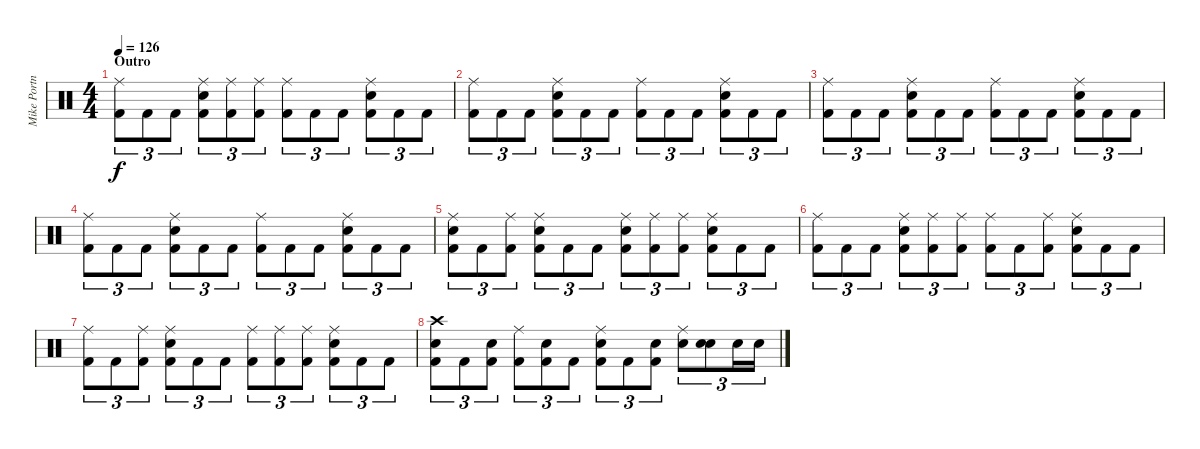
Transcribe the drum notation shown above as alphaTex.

\track ("Mike Portnoy" "Mike Portn") {instrument percussion}
\staff {score}
\articulation defaults
\ts (4 4)
\section ("" "Outro")
\tempo 126
\clef neutral
\ks c
("Ride (middle)" "Kick (hit) 2").8{tu (3 2) dy f} "Kick (hit) 2".8{tu (3 2)} "Kick (hit) 2".8{tu (3 2)} ("Ride (middle)" "Electric Snare (hit)" "Kick (hit) 2").8{tu (3 2)} ("Ride (middle)" "Kick (hit) 2").8{tu (3 2)} ("Ride (middle)" "Kick (hit) 2").8{tu (3 2)} ("Ride (middle)" "Kick (hit) 2").8{tu (3 2)} "Kick (hit) 2".8{tu (3 2)} "Kick (hit) 2".8{tu (3 2)} ("Ride (middle)" "Electric Snare (hit)" "Kick (hit) 2").8{tu (3 2)} "Kick (hit) 2".8{tu (3 2)} "Kick (hit) 2".8{tu (3 2)} |
("Ride (middle)" "Kick (hit) 2").8{tu (3 2)} "Kick (hit) 2".8{tu (3 2)} "Kick (hit) 2".8{tu (3 2)} ("Ride (middle)" "Electric Snare (hit)" "Kick (hit) 2").8{tu (3 2)} "Kick (hit) 2".8{tu (3 2)} "Kick (hit) 2".8{tu (3 2)} ("Ride (middle)" "Kick (hit) 2").8{tu (3 2)} "Kick (hit) 2".8{tu (3 2)} "Kick (hit) 2".8{tu (3 2)} ("Ride (middle)" "Electric Snare (hit)" "Kick (hit) 2").8{tu (3 2)} "Kick (hit) 2".8{tu (3 2)} "Kick (hit) 2".8{tu (3 2)} |
("Ride (middle)" "Kick (hit) 2").8{tu (3 2)} "Kick (hit) 2".8{tu (3 2)} "Kick (hit) 2".8{tu (3 2)} ("Ride (middle)" "Electric Snare (hit)" "Kick (hit) 2").8{tu (3 2)} "Kick (hit) 2".8{tu (3 2)} "Kick (hit) 2".8{tu (3 2)} ("Ride (middle)" "Kick (hit) 2").8{tu (3 2)} "Kick (hit) 2".8{tu (3 2)} "Kick (hit) 2".8{tu (3 2)} ("Ride (middle)" "Electric Snare (hit)" "Kick (hit) 2").8{tu (3 2)} "Kick (hit) 2".8{tu (3 2)} "Kick (hit) 2".8{tu (3 2)} |
("Ride (middle)" "Kick (hit) 2").8{tu (3 2)} "Kick (hit) 2".8{tu (3 2)} "Kick (hit) 2".8{tu (3 2)} ("Ride (middle)" "Electric Snare (hit)" "Kick (hit) 2").8{tu (3 2)} "Kick (hit) 2".8{tu (3 2)} "Kick (hit) 2".8{tu (3 2)} ("Ride (middle)" "Kick (hit) 2").8{tu (3 2)} "Kick (hit) 2".8{tu (3 2)} "Kick (hit) 2".8{tu (3 2)} ("Ride (middle)" "Electric Snare (hit)" "Kick (hit) 2").8{tu (3 2)} "Kick (hit) 2".8{tu (3 2)} "Kick (hit) 2".8{tu (3 2)} |
("Ride (middle)" "Electric Snare (hit)" "Kick (hit) 2").8{tu (3 2)} "Kick (hit) 2".8{tu (3 2)} ("Ride (middle)" "Kick (hit) 2").8{tu (3 2)} ("Ride (middle)" "Electric Snare (hit)" "Kick (hit) 2").8{tu (3 2)} "Kick (hit) 2".8{tu (3 2)} "Kick (hit) 2".8{tu (3 2)} ("Ride (middle)" "Electric Snare (hit)" "Kick (hit) 2").8{tu (3 2)} ("Ride (middle)" "Kick (hit) 2").8{tu (3 2)} ("Ride (middle)" "Kick (hit) 2").8{tu (3 2)} ("Ride (middle)" "Electric Snare (hit)" "Kick (hit) 2").8{tu (3 2)} "Kick (hit) 2".8{tu (3 2)} "Kick (hit) 2".8{tu (3 2)} |
("Ride (middle)" "Kick (hit) 2").8{tu (3 2)} "Kick (hit) 2".8{tu (3 2)} "Kick (hit) 2".8{tu (3 2)} ("Ride (middle)" "Electric Snare (hit)" "Kick (hit) 2").8{tu (3 2)} ("Ride (middle)" "Kick (hit) 2").8{tu (3 2)} ("Ride (middle)" "Kick (hit) 2").8{tu (3 2)} ("Ride (middle)" "Kick (hit) 2").8{tu (3 2)} "Kick (hit) 2".8{tu (3 2)} ("Ride (middle)" "Kick (hit) 2").8{tu (3 2)} ("Ride (middle)" "Electric Snare (hit)" "Kick (hit) 2").8{tu (3 2)} "Kick (hit) 2".8{tu (3 2)} "Kick (hit) 2".8{tu (3 2)} |
("Ride (middle)" "Kick (hit) 2").8{tu (3 2)} "Kick (hit) 2".8{tu (3 2)} ("Ride (middle)" "Kick (hit) 2").8{tu (3 2)} ("Ride (middle)" "Electric Snare (hit)" "Kick (hit) 2").8{tu (3 2)} "Kick (hit) 2".8{tu (3 2)} "Kick (hit) 2".8{tu (3 2)} ("Ride (middle)" "Kick (hit) 2").8{tu (3 2)} ("Ride (middle)" "Kick (hit) 2").8{tu (3 2)} ("Ride (middle)" "Kick (hit) 2").8{tu (3 2)} ("Ride (middle)" "Electric Snare (hit)" "Kick (hit) 2").8{tu (3 2)} "Kick (hit) 2".8{tu (3 2)} "Kick (hit) 2".8{tu (3 2)} |
("Crash high (hit)" "Electric Snare (hit)" "Kick (hit) 2").8{tu (3 2)} "Kick (hit) 2".8{tu (3 2)} ("Electric Snare (hit)" "Kick (hit) 2").8{tu (3 2)} ("Ride (middle)" "Kick (hit) 2").8{tu (3 2)} ("Electric Snare (hit)" "Kick (hit) 2").8{tu (3 2)} "Kick (hit) 2".8{tu (3 2)} ("Ride (middle)" "Electric Snare (hit)" "Kick (hit) 2").8{tu (3 2)} "Kick (hit) 2".8{tu (3 2)} ("Electric Snare (hit)" "Kick (hit) 2").8{tu (3 2)} ("Ride (middle)" "Electric Snare (hit)").8{tu (3 2)} ("Snare (hit) 2" "Electric Snare (hit)").8{tu (3 2)} "Electric Snare (hit)".16{tu (3 2)} "Electric Snare (hit)".16{tu (3 2)}
